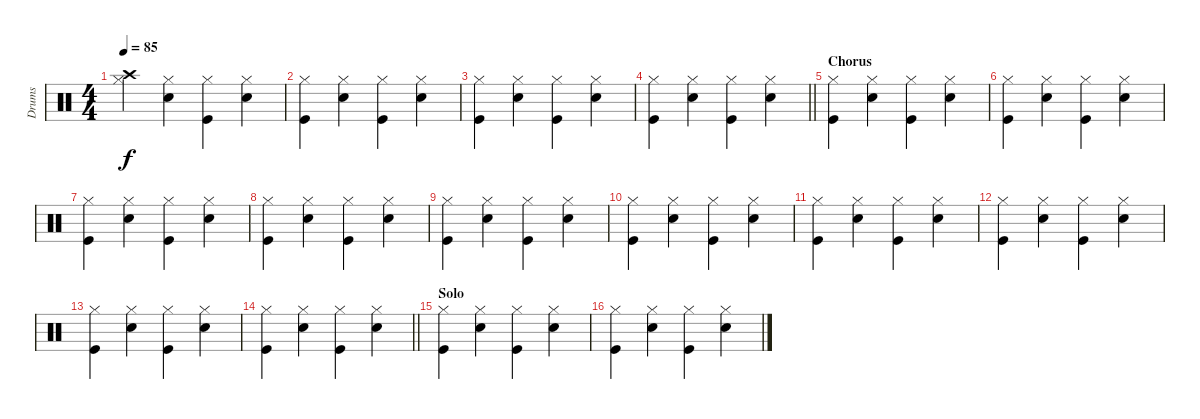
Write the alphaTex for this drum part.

\track ("Drums" "Drums") {instrument percussion}
\staff {score}
\articulation defaults
\ts (4 4)
\tempo 85
\clef neutral
\ks c
("Crash high (hit)" "Hi-Hat (closed)").4{dy f} ("Snare (hit) 2" "Hi-Hat (closed)").4 ("Kick (hit)" "Hi-Hat (closed)").4 ("Snare (hit) 2" "Hi-Hat (closed)").4 |
("Kick (hit)" "Hi-Hat (closed)").4 ("Snare (hit) 2" "Hi-Hat (closed)").4 ("Kick (hit)" "Hi-Hat (closed)").4 ("Snare (hit) 2" "Hi-Hat (closed)").4 |
("Kick (hit)" "Hi-Hat (closed)").4 ("Snare (hit) 2" "Hi-Hat (closed)").4 ("Kick (hit)" "Hi-Hat (closed)").4 ("Snare (hit) 2" "Hi-Hat (closed)").4 |
\barLineRight lightlight
("Kick (hit)" "Hi-Hat (closed)").4 ("Snare (hit) 2" "Hi-Hat (closed)").4 ("Kick (hit)" "Hi-Hat (closed)").4 ("Snare (hit) 2" "Hi-Hat (closed)").4 |
\section ("" "Chorus")
("Kick (hit)" "Hi-Hat (closed)").4 ("Snare (hit) 2" "Hi-Hat (closed)").4 ("Kick (hit)" "Hi-Hat (closed)").4 ("Snare (hit) 2" "Hi-Hat (closed)").4 |
("Kick (hit)" "Hi-Hat (closed)").4 ("Snare (hit) 2" "Hi-Hat (closed)").4 ("Kick (hit)" "Hi-Hat (closed)").4 ("Snare (hit) 2" "Hi-Hat (closed)").4 |
("Kick (hit)" "Hi-Hat (closed)").4 ("Snare (hit) 2" "Hi-Hat (closed)").4 ("Kick (hit)" "Hi-Hat (closed)").4 ("Snare (hit) 2" "Hi-Hat (closed)").4 |
("Kick (hit)" "Hi-Hat (closed)").4 ("Snare (hit) 2" "Hi-Hat (closed)").4 ("Kick (hit)" "Hi-Hat (closed)").4 ("Snare (hit) 2" "Hi-Hat (closed)").4 |
("Kick (hit)" "Hi-Hat (closed)").4 ("Snare (hit) 2" "Hi-Hat (closed)").4 ("Kick (hit)" "Hi-Hat (closed)").4 ("Snare (hit) 2" "Hi-Hat (closed)").4 |
("Kick (hit)" "Hi-Hat (closed)").4 ("Snare (hit) 2" "Hi-Hat (closed)").4 ("Kick (hit)" "Hi-Hat (closed)").4 ("Snare (hit) 2" "Hi-Hat (closed)").4 |
("Kick (hit)" "Hi-Hat (closed)").4 ("Snare (hit) 2" "Hi-Hat (closed)").4 ("Kick (hit)" "Hi-Hat (closed)").4 ("Snare (hit) 2" "Hi-Hat (closed)").4 |
("Kick (hit)" "Hi-Hat (closed)").4 ("Snare (hit) 2" "Hi-Hat (closed)").4 ("Kick (hit)" "Hi-Hat (closed)").4 ("Snare (hit) 2" "Hi-Hat (closed)").4 |
("Kick (hit)" "Hi-Hat (closed)").4 ("Snare (hit) 2" "Hi-Hat (closed)").4 ("Kick (hit)" "Hi-Hat (closed)").4 ("Snare (hit) 2" "Hi-Hat (closed)").4 |
\barLineRight lightlight
("Kick (hit)" "Hi-Hat (closed)").4 ("Snare (hit) 2" "Hi-Hat (closed)").4 ("Kick (hit)" "Hi-Hat (closed)").4 ("Snare (hit) 2" "Hi-Hat (closed)").4 |
\section ("" "Solo ")
("Kick (hit)" "Hi-Hat (closed)").4 ("Snare (hit) 2" "Hi-Hat (closed)").4 ("Kick (hit)" "Hi-Hat (closed)").4 ("Snare (hit) 2" "Hi-Hat (closed)").4 |
("Kick (hit)" "Hi-Hat (closed)").4 ("Snare (hit) 2" "Hi-Hat (closed)").4 ("Kick (hit)" "Hi-Hat (closed)").4 ("Snare (hit) 2" "Hi-Hat (closed)").4
